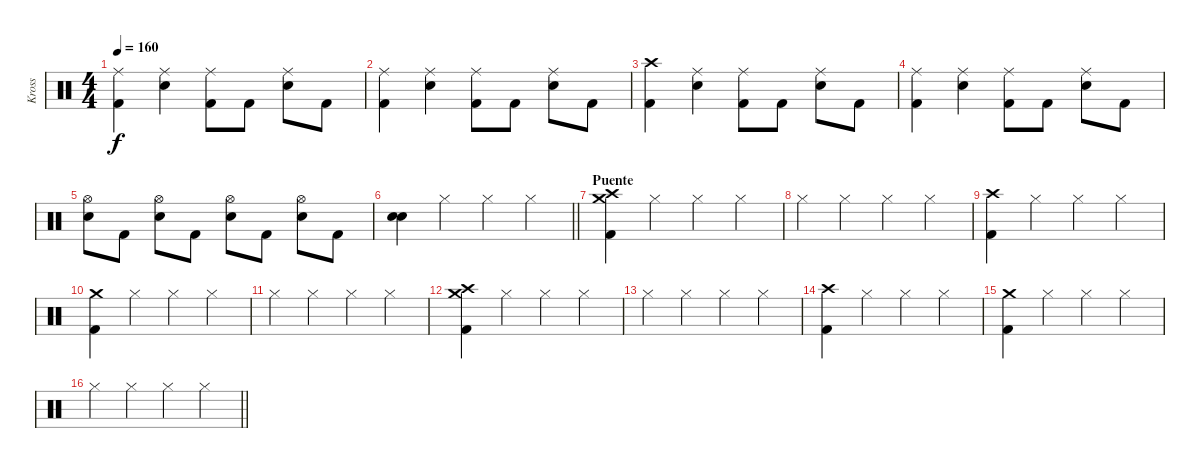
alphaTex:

\track ("Kross" "Kross") {instrument percussion}
\staff {score}
\articulation defaults
\ts (4 4)
\tempo 160
\clef neutral
\ks c
("Ride (middle)" "Kick (hit) 2").4{dy f} ("Ride (middle)" "Electric Snare (hit)").4 ("Ride (middle)" "Kick (hit) 2").8 "Kick (hit) 2".8 ("Ride (middle)" "Electric Snare (hit)").8 "Kick (hit) 2".8 |
("Ride (middle)" "Kick (hit) 2").4 ("Ride (middle)" "Electric Snare (hit)").4 ("Ride (middle)" "Kick (hit) 2").8 "Kick (hit) 2".8 ("Ride (middle)" "Electric Snare (hit)").8 "Kick (hit) 2".8 |
("Crash high (hit)" "Kick (hit) 2").4 ("Ride (middle)" "Electric Snare (hit)").4 ("Ride (middle)" "Kick (hit) 2").8 "Kick (hit) 2".8 ("Ride (middle)" "Electric Snare (hit)").8 "Kick (hit) 2".8 |
("Ride (middle)" "Kick (hit) 2").4 ("Ride (middle)" "Electric Snare (hit)").4 ("Ride (middle)" "Kick (hit) 2").8 "Kick (hit) 2".8 ("Ride (middle)" "Electric Snare (hit)").8 "Kick (hit) 2".8 |
("Hi-Hat (open)" "Electric Snare (hit)").8 "Kick (hit) 2".8 ("Hi-Hat (open)" "Electric Snare (hit)").8 "Kick (hit) 2".8 ("Hi-Hat (open)" "Electric Snare (hit)").8 "Kick (hit) 2".8 ("Hi-Hat (open)" "Electric Snare (hit)").8 "Kick (hit) 2".8 |
\barLineRight lightlight
("Electric Snare (hit)" "Electric Snare (hit)").4 "Hi-Hat (closed)".4 "Hi-Hat (closed)".4 "Hi-Hat (closed)".4 |
\section ("" "Puente")
("Crash high (hit)" "Crash medium (hit)" "Kick (hit) 2").4 "Hi-Hat (closed)".4 "Hi-Hat (closed)".4 "Hi-Hat (closed)".4 |
"Hi-Hat (closed)".4 "Hi-Hat (closed)".4 "Hi-Hat (closed)".4 "Hi-Hat (closed)".4 |
("Crash high (hit)" "Kick (hit) 2").4 "Hi-Hat (closed)".4 "Hi-Hat (closed)".4 "Hi-Hat (closed)".4 |
("Crash medium (hit)" "Kick (hit) 2").4 "Hi-Hat (closed)".4 "Hi-Hat (closed)".4 "Hi-Hat (closed)".4 |
"Hi-Hat (closed)".4 "Hi-Hat (closed)".4 "Hi-Hat (closed)".4 "Hi-Hat (closed)".4 |
("Crash high (hit)" "Crash medium (hit)" "Kick (hit) 2").4 "Hi-Hat (closed)".4 "Hi-Hat (closed)".4 "Hi-Hat (closed)".4 |
"Hi-Hat (closed)".4 "Hi-Hat (closed)".4 "Hi-Hat (closed)".4 "Hi-Hat (closed)".4 |
("Crash high (hit)" "Kick (hit) 2").4 "Hi-Hat (closed)".4 "Hi-Hat (closed)".4 "Hi-Hat (closed)".4 |
("Crash medium (hit)" "Kick (hit) 2").4 "Hi-Hat (closed)".4 "Hi-Hat (closed)".4 "Hi-Hat (closed)".4 |
\barLineRight lightlight "Hi-Hat (closed)".4 "Hi-Hat (closed)".4 "Hi-Hat (closed)".4 "Hi-Hat (closed)".4
